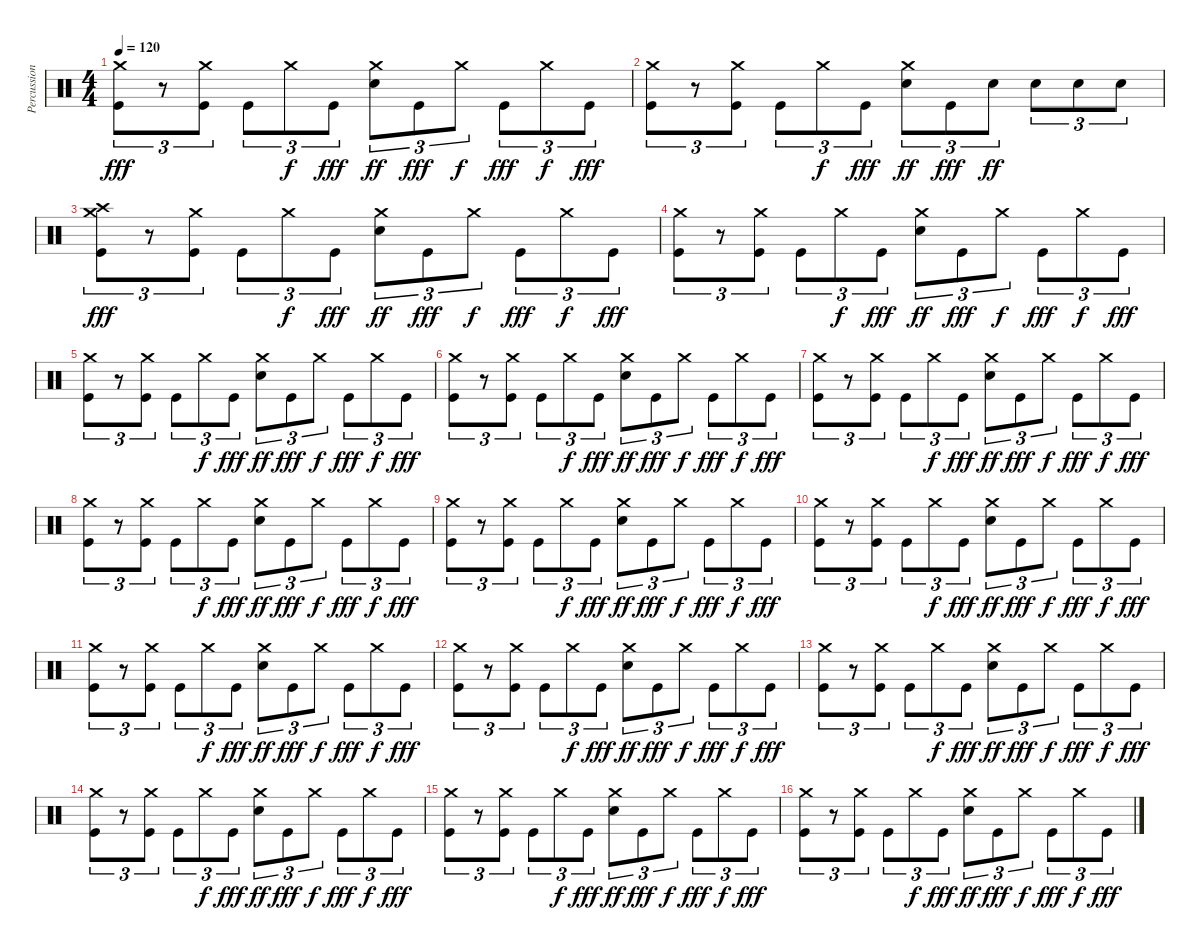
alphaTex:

\track ("Percussion" "Percussion") {instrument percussion}
\staff {score}
\articulation defaults
\ts (4 4)
\tempo 120
\clef neutral
\ks c
("Crash medium (hit)" "Kick (hit)").8{tu (3 2) dy fff} r.8{tu (3 2)} ("Crash medium (hit)" "Kick (hit)").8{tu (3 2)} "Kick (hit)".8{tu (3 2)} "Crash medium (hit)".8{tu (3 2) dy f} "Kick (hit)".8{tu (3 2) dy fff} ("Crash medium (hit)" "Snare (hit) 2").8{tu (3 2) dy ff} "Kick (hit)".8{tu (3 2) dy fff} "Crash medium (hit)".8{tu (3 2) dy f} "Kick (hit)".8{tu (3 2) dy fff} "Crash medium (hit)".8{tu (3 2) dy f} "Kick (hit)".8{tu (3 2) dy fff} |
("Crash medium (hit)" "Kick (hit)").8{tu (3 2)} r.8{tu (3 2)} ("Crash medium (hit)" "Kick (hit)").8{tu (3 2)} "Kick (hit)".8{tu (3 2)} "Crash medium (hit)".8{tu (3 2) dy f} "Kick (hit)".8{tu (3 2) dy fff} ("Crash medium (hit)" "Snare (hit) 2").8{tu (3 2) dy ff} "Kick (hit)".8{tu (3 2) dy fff} "Snare (hit) 2".8{tu (3 2) dy ff} "Snare (hit) 2".8{tu (3 2)} "Snare (hit) 2".8{tu (3 2)} "Snare (hit) 2".8{tu (3 2)} |
("Crash high (hit)" "Crash medium (hit)" "Kick (hit)").8{tu (3 2) dy fff} r.8{tu (3 2)} ("Crash medium (hit)" "Kick (hit)").8{tu (3 2)} "Kick (hit)".8{tu (3 2)} "Crash medium (hit)".8{tu (3 2) dy f} "Kick (hit)".8{tu (3 2) dy fff} ("Crash medium (hit)" "Snare (hit) 2").8{tu (3 2) dy ff} "Kick (hit)".8{tu (3 2) dy fff} "Crash medium (hit)".8{tu (3 2) dy f} "Kick (hit)".8{tu (3 2) dy fff} "Crash medium (hit)".8{tu (3 2) dy f} "Kick (hit)".8{tu (3 2) dy fff} |
("Crash medium (hit)" "Kick (hit)").8{tu (3 2)} r.8{tu (3 2)} ("Crash medium (hit)" "Kick (hit)").8{tu (3 2)} "Kick (hit)".8{tu (3 2)} "Crash medium (hit)".8{tu (3 2) dy f} "Kick (hit)".8{tu (3 2) dy fff} ("Crash medium (hit)" "Snare (hit) 2").8{tu (3 2) dy ff} "Kick (hit)".8{tu (3 2) dy fff} "Crash medium (hit)".8{tu (3 2) dy f} "Kick (hit)".8{tu (3 2) dy fff} "Crash medium (hit)".8{tu (3 2) dy f} "Kick (hit)".8{tu (3 2) dy fff} |
("Crash medium (hit)" "Kick (hit)").8{tu (3 2)} r.8{tu (3 2)} ("Crash medium (hit)" "Kick (hit)").8{tu (3 2)} "Kick (hit)".8{tu (3 2)} "Crash medium (hit)".8{tu (3 2) dy f} "Kick (hit)".8{tu (3 2) dy fff} ("Crash medium (hit)" "Snare (hit) 2").8{tu (3 2) dy ff} "Kick (hit)".8{tu (3 2) dy fff} "Crash medium (hit)".8{tu (3 2) dy f} "Kick (hit)".8{tu (3 2) dy fff} "Crash medium (hit)".8{tu (3 2) dy f} "Kick (hit)".8{tu (3 2) dy fff} |
("Crash medium (hit)" "Kick (hit)").8{tu (3 2)} r.8{tu (3 2)} ("Crash medium (hit)" "Kick (hit)").8{tu (3 2)} "Kick (hit)".8{tu (3 2)} "Crash medium (hit)".8{tu (3 2) dy f} "Kick (hit)".8{tu (3 2) dy fff} ("Crash medium (hit)" "Snare (hit) 2").8{tu (3 2) dy ff} "Kick (hit)".8{tu (3 2) dy fff} "Crash medium (hit)".8{tu (3 2) dy f} "Kick (hit)".8{tu (3 2) dy fff} "Crash medium (hit)".8{tu (3 2) dy f} "Kick (hit)".8{tu (3 2) dy fff} |
("Crash medium (hit)" "Kick (hit)").8{tu (3 2)} r.8{tu (3 2)} ("Crash medium (hit)" "Kick (hit)").8{tu (3 2)} "Kick (hit)".8{tu (3 2)} "Crash medium (hit)".8{tu (3 2) dy f} "Kick (hit)".8{tu (3 2) dy fff} ("Crash medium (hit)" "Snare (hit) 2").8{tu (3 2) dy ff} "Kick (hit)".8{tu (3 2) dy fff} "Crash medium (hit)".8{tu (3 2) dy f} "Kick (hit)".8{tu (3 2) dy fff} "Crash medium (hit)".8{tu (3 2) dy f} "Kick (hit)".8{tu (3 2) dy fff} |
("Crash medium (hit)" "Kick (hit)").8{tu (3 2)} r.8{tu (3 2)} ("Crash medium (hit)" "Kick (hit)").8{tu (3 2)} "Kick (hit)".8{tu (3 2)} "Crash medium (hit)".8{tu (3 2) dy f} "Kick (hit)".8{tu (3 2) dy fff} ("Crash medium (hit)" "Snare (hit) 2").8{tu (3 2) dy ff} "Kick (hit)".8{tu (3 2) dy fff} "Crash medium (hit)".8{tu (3 2) dy f} "Kick (hit)".8{tu (3 2) dy fff} "Crash medium (hit)".8{tu (3 2) dy f} "Kick (hit)".8{tu (3 2) dy fff} |
("Crash medium (hit)" "Kick (hit)").8{tu (3 2)} r.8{tu (3 2)} ("Crash medium (hit)" "Kick (hit)").8{tu (3 2)} "Kick (hit)".8{tu (3 2)} "Crash medium (hit)".8{tu (3 2) dy f} "Kick (hit)".8{tu (3 2) dy fff} ("Crash medium (hit)" "Snare (hit) 2").8{tu (3 2) dy ff} "Kick (hit)".8{tu (3 2) dy fff} "Crash medium (hit)".8{tu (3 2) dy f} "Kick (hit)".8{tu (3 2) dy fff} "Crash medium (hit)".8{tu (3 2) dy f} "Kick (hit)".8{tu (3 2) dy fff} |
("Crash medium (hit)" "Kick (hit)").8{tu (3 2)} r.8{tu (3 2)} ("Crash medium (hit)" "Kick (hit)").8{tu (3 2)} "Kick (hit)".8{tu (3 2)} "Crash medium (hit)".8{tu (3 2) dy f} "Kick (hit)".8{tu (3 2) dy fff} ("Crash medium (hit)" "Snare (hit) 2").8{tu (3 2) dy ff} "Kick (hit)".8{tu (3 2) dy fff} "Crash medium (hit)".8{tu (3 2) dy f} "Kick (hit)".8{tu (3 2) dy fff} "Crash medium (hit)".8{tu (3 2) dy f} "Kick (hit)".8{tu (3 2) dy fff} |
("Crash medium (hit)" "Kick (hit)").8{tu (3 2)} r.8{tu (3 2)} ("Crash medium (hit)" "Kick (hit)").8{tu (3 2)} "Kick (hit)".8{tu (3 2)} "Crash medium (hit)".8{tu (3 2) dy f} "Kick (hit)".8{tu (3 2) dy fff} ("Crash medium (hit)" "Snare (hit) 2").8{tu (3 2) dy ff} "Kick (hit)".8{tu (3 2) dy fff} "Crash medium (hit)".8{tu (3 2) dy f} "Kick (hit)".8{tu (3 2) dy fff} "Crash medium (hit)".8{tu (3 2) dy f} "Kick (hit)".8{tu (3 2) dy fff} |
("Crash medium (hit)" "Kick (hit)").8{tu (3 2)} r.8{tu (3 2)} ("Crash medium (hit)" "Kick (hit)").8{tu (3 2)} "Kick (hit)".8{tu (3 2)} "Crash medium (hit)".8{tu (3 2) dy f} "Kick (hit)".8{tu (3 2) dy fff} ("Crash medium (hit)" "Snare (hit) 2").8{tu (3 2) dy ff} "Kick (hit)".8{tu (3 2) dy fff} "Crash medium (hit)".8{tu (3 2) dy f} "Kick (hit)".8{tu (3 2) dy fff} "Crash medium (hit)".8{tu (3 2) dy f} "Kick (hit)".8{tu (3 2) dy fff} |
("Crash medium (hit)" "Kick (hit)").8{tu (3 2)} r.8{tu (3 2)} ("Crash medium (hit)" "Kick (hit)").8{tu (3 2)} "Kick (hit)".8{tu (3 2)} "Crash medium (hit)".8{tu (3 2) dy f} "Kick (hit)".8{tu (3 2) dy fff} ("Crash medium (hit)" "Snare (hit) 2").8{tu (3 2) dy ff} "Kick (hit)".8{tu (3 2) dy fff} "Crash medium (hit)".8{tu (3 2) dy f} "Kick (hit)".8{tu (3 2) dy fff} "Crash medium (hit)".8{tu (3 2) dy f} "Kick (hit)".8{tu (3 2) dy fff} |
("Crash medium (hit)" "Kick (hit)").8{tu (3 2)} r.8{tu (3 2)} ("Crash medium (hit)" "Kick (hit)").8{tu (3 2)} "Kick (hit)".8{tu (3 2)} "Crash medium (hit)".8{tu (3 2) dy f} "Kick (hit)".8{tu (3 2) dy fff} ("Crash medium (hit)" "Snare (hit) 2").8{tu (3 2) dy ff} "Kick (hit)".8{tu (3 2) dy fff} "Crash medium (hit)".8{tu (3 2) dy f} "Kick (hit)".8{tu (3 2) dy fff} "Crash medium (hit)".8{tu (3 2) dy f} "Kick (hit)".8{tu (3 2) dy fff} |
("Crash medium (hit)" "Kick (hit)").8{tu (3 2)} r.8{tu (3 2)} ("Crash medium (hit)" "Kick (hit)").8{tu (3 2)} "Kick (hit)".8{tu (3 2)} "Crash medium (hit)".8{tu (3 2) dy f} "Kick (hit)".8{tu (3 2) dy fff} ("Crash medium (hit)" "Snare (hit) 2").8{tu (3 2) dy ff} "Kick (hit)".8{tu (3 2) dy fff} "Crash medium (hit)".8{tu (3 2) dy f} "Kick (hit)".8{tu (3 2) dy fff} "Crash medium (hit)".8{tu (3 2) dy f} "Kick (hit)".8{tu (3 2) dy fff} |
("Crash medium (hit)" "Kick (hit)").8{tu (3 2)} r.8{tu (3 2)} ("Crash medium (hit)" "Kick (hit)").8{tu (3 2)} "Kick (hit)".8{tu (3 2)} "Crash medium (hit)".8{tu (3 2) dy f} "Kick (hit)".8{tu (3 2) dy fff} ("Crash medium (hit)" "Snare (hit) 2").8{tu (3 2) dy ff} "Kick (hit)".8{tu (3 2) dy fff} "Crash medium (hit)".8{tu (3 2) dy f} "Kick (hit)".8{tu (3 2) dy fff} "Crash medium (hit)".8{tu (3 2) dy f} "Kick (hit)".8{tu (3 2) dy fff}
